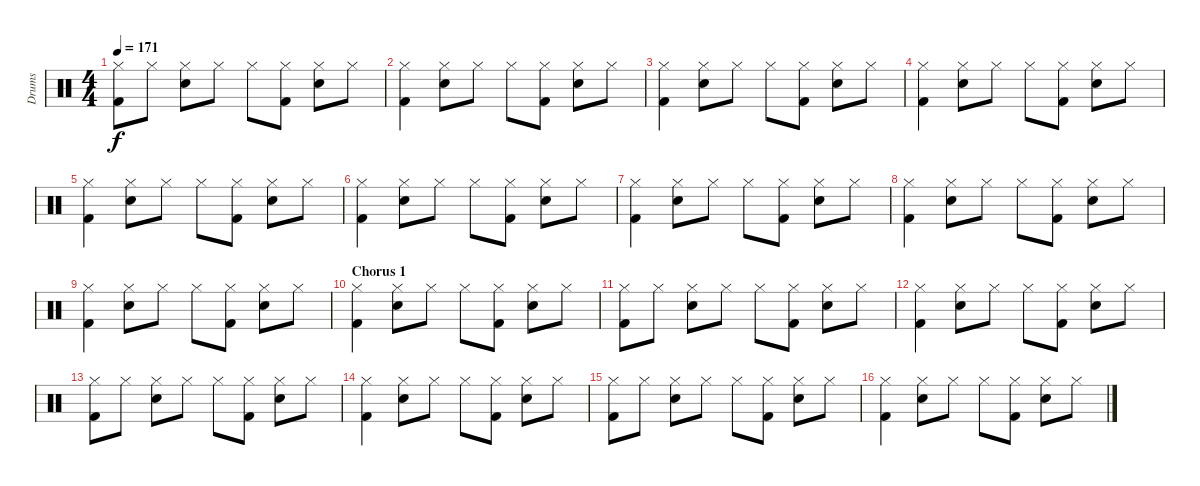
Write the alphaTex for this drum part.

\track ("Drums" "Drums") {instrument percussion}
\staff {score}
\articulation defaults
\ts (4 4)
\tempo 171
\clef neutral
\ks c
("Hi-Hat (closed)" "Kick (hit) 2").8{dy f} "Hi-Hat (closed)".8 ("Hi-Hat (closed)" "Electric Snare (hit)").8 "Hi-Hat (closed)".8 "Hi-Hat (closed)".8 ("Hi-Hat (closed)" "Kick (hit) 2").8 ("Hi-Hat (closed)" "Electric Snare (hit)").8 "Hi-Hat (closed)".8 |
("Hi-Hat (closed)" "Kick (hit) 2").4 ("Hi-Hat (closed)" "Electric Snare (hit)").8 "Hi-Hat (closed)".8 "Hi-Hat (closed)".8 ("Hi-Hat (closed)" "Kick (hit) 2").8 ("Hi-Hat (closed)" "Electric Snare (hit)").8 "Hi-Hat (closed)".8 |
("Hi-Hat (closed)" "Kick (hit) 2").4 ("Hi-Hat (closed)" "Electric Snare (hit)").8 "Hi-Hat (closed)".8 "Hi-Hat (closed)".8 ("Hi-Hat (closed)" "Kick (hit) 2").8 ("Hi-Hat (closed)" "Electric Snare (hit)").8 "Hi-Hat (closed)".8 |
("Hi-Hat (closed)" "Kick (hit) 2").4 ("Hi-Hat (closed)" "Electric Snare (hit)").8 "Hi-Hat (closed)".8 "Hi-Hat (closed)".8 ("Hi-Hat (closed)" "Kick (hit) 2").8 ("Hi-Hat (closed)" "Electric Snare (hit)").8 "Hi-Hat (closed)".8 |
("Hi-Hat (closed)" "Kick (hit) 2").4 ("Hi-Hat (closed)" "Electric Snare (hit)").8 "Hi-Hat (closed)".8 "Hi-Hat (closed)".8 ("Hi-Hat (closed)" "Kick (hit) 2").8 ("Hi-Hat (closed)" "Electric Snare (hit)").8 "Hi-Hat (closed)".8 |
("Hi-Hat (closed)" "Kick (hit) 2").4 ("Hi-Hat (closed)" "Electric Snare (hit)").8 "Hi-Hat (closed)".8 "Hi-Hat (closed)".8 ("Hi-Hat (closed)" "Kick (hit) 2").8 ("Hi-Hat (closed)" "Electric Snare (hit)").8 "Hi-Hat (closed)".8 |
("Hi-Hat (closed)" "Kick (hit) 2").4 ("Hi-Hat (closed)" "Electric Snare (hit)").8 "Hi-Hat (closed)".8 "Hi-Hat (closed)".8 ("Hi-Hat (closed)" "Kick (hit) 2").8 ("Hi-Hat (closed)" "Electric Snare (hit)").8 "Hi-Hat (closed)".8 |
("Hi-Hat (closed)" "Kick (hit) 2").4 ("Hi-Hat (closed)" "Electric Snare (hit)").8 "Hi-Hat (closed)".8 "Hi-Hat (closed)".8 ("Hi-Hat (closed)" "Kick (hit) 2").8 ("Hi-Hat (closed)" "Electric Snare (hit)").8 "Hi-Hat (closed)".8 |
("Hi-Hat (closed)" "Kick (hit) 2").4 ("Hi-Hat (closed)" "Electric Snare (hit)").8 "Hi-Hat (closed)".8 "Hi-Hat (closed)".8 ("Hi-Hat (closed)" "Kick (hit) 2").8 ("Hi-Hat (closed)" "Electric Snare (hit)").8 "Hi-Hat (closed)".8 |
\section ("" "Chorus 1")
("Hi-Hat (closed)" "Kick (hit) 2").4 ("Hi-Hat (closed)" "Electric Snare (hit)").8 "Hi-Hat (closed)".8 "Hi-Hat (closed)".8 ("Hi-Hat (closed)" "Kick (hit) 2").8 ("Hi-Hat (closed)" "Electric Snare (hit)").8 "Hi-Hat (closed)".8 |
("Hi-Hat (closed)" "Kick (hit) 2").8 "Hi-Hat (closed)".8 ("Hi-Hat (closed)" "Electric Snare (hit)").8 "Hi-Hat (closed)".8 "Hi-Hat (closed)".8 ("Hi-Hat (closed)" "Kick (hit) 2").8 ("Hi-Hat (closed)" "Electric Snare (hit)").8 "Hi-Hat (closed)".8 |
("Hi-Hat (closed)" "Kick (hit) 2").4 ("Hi-Hat (closed)" "Electric Snare (hit)").8 "Hi-Hat (closed)".8 "Hi-Hat (closed)".8 ("Hi-Hat (closed)" "Kick (hit) 2").8 ("Hi-Hat (closed)" "Electric Snare (hit)").8 "Hi-Hat (closed)".8 |
("Hi-Hat (closed)" "Kick (hit) 2").8 "Hi-Hat (closed)".8 ("Hi-Hat (closed)" "Electric Snare (hit)").8 "Hi-Hat (closed)".8 "Hi-Hat (closed)".8 ("Hi-Hat (closed)" "Kick (hit) 2").8 ("Hi-Hat (closed)" "Electric Snare (hit)").8 "Hi-Hat (closed)".8 |
("Hi-Hat (closed)" "Kick (hit) 2").4 ("Hi-Hat (closed)" "Electric Snare (hit)").8 "Hi-Hat (closed)".8 "Hi-Hat (closed)".8 ("Hi-Hat (closed)" "Kick (hit) 2").8 ("Hi-Hat (closed)" "Electric Snare (hit)").8 "Hi-Hat (closed)".8 |
("Hi-Hat (closed)" "Kick (hit) 2").8 "Hi-Hat (closed)".8 ("Hi-Hat (closed)" "Electric Snare (hit)").8 "Hi-Hat (closed)".8 "Hi-Hat (closed)".8 ("Hi-Hat (closed)" "Kick (hit) 2").8 ("Hi-Hat (closed)" "Electric Snare (hit)").8 "Hi-Hat (closed)".8 |
("Hi-Hat (closed)" "Kick (hit) 2").4 ("Hi-Hat (closed)" "Electric Snare (hit)").8 "Hi-Hat (closed)".8 "Hi-Hat (closed)".8 ("Hi-Hat (closed)" "Kick (hit) 2").8 ("Hi-Hat (closed)" "Electric Snare (hit)").8 "Hi-Hat (closed)".8
